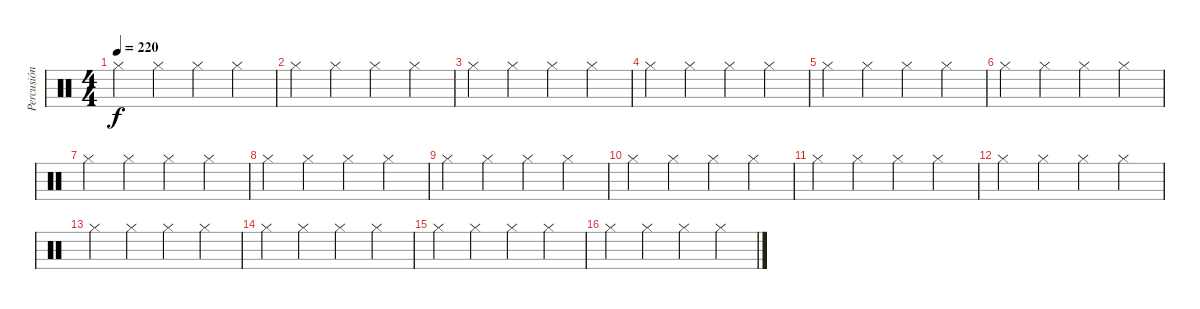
\track ("Percusión" "Percusión") {instrument percussion}
\staff {score}
\articulation defaults
\ts (4 4)
\tempo 220
\clef neutral
\ks c "Hi-Hat (closed)".4{dy f} "Hi-Hat (closed)".4 "Hi-Hat (closed)".4 "Hi-Hat (closed)".4
|
"Hi-Hat (closed)".4 "Hi-Hat (closed)".4 "Hi-Hat (closed)".4 "Hi-Hat (closed)".4 |
"Hi-Hat (closed)".4 "Hi-Hat (closed)".4 "Hi-Hat (closed)".4 "Hi-Hat (closed)".4 |
"Hi-Hat (closed)".4 "Hi-Hat (closed)".4 "Hi-Hat (closed)".4 "Hi-Hat (closed)".4 |
"Hi-Hat (closed)".4 "Hi-Hat (closed)".4 "Hi-Hat (closed)".4 "Hi-Hat (closed)".4 |
"Hi-Hat (closed)".4 "Hi-Hat (closed)".4 "Hi-Hat (closed)".4 "Hi-Hat (closed)".4 |
"Hi-Hat (closed)".4 "Hi-Hat (closed)".4 "Hi-Hat (closed)".4 "Hi-Hat (closed)".4 |
"Hi-Hat (closed)".4 "Hi-Hat (closed)".4 "Hi-Hat (closed)".4 "Hi-Hat (closed)".4 |
"Hi-Hat (closed)".4 "Hi-Hat (closed)".4 "Hi-Hat (closed)".4 "Hi-Hat (closed)".4 |
"Hi-Hat (closed)".4 "Hi-Hat (closed)".4 "Hi-Hat (closed)".4 "Hi-Hat (closed)".4 |
"Hi-Hat (closed)".4 "Hi-Hat (closed)".4 "Hi-Hat (closed)".4 "Hi-Hat (closed)".4 |
"Hi-Hat (closed)".4 "Hi-Hat (closed)".4 "Hi-Hat (closed)".4 "Hi-Hat (closed)".4 |
"Hi-Hat (closed)".4 "Hi-Hat (closed)".4 "Hi-Hat (closed)".4 "Hi-Hat (closed)".4 |
"Hi-Hat (closed)".4 "Hi-Hat (closed)".4 "Hi-Hat (closed)".4 "Hi-Hat (closed)".4 |
"Hi-Hat (closed)".4 "Hi-Hat (closed)".4 "Hi-Hat (closed)".4 "Hi-Hat (closed)".4 |
"Hi-Hat (closed)".4 "Hi-Hat (closed)".4 "Hi-Hat (closed)".4 "Hi-Hat (closed)".4
